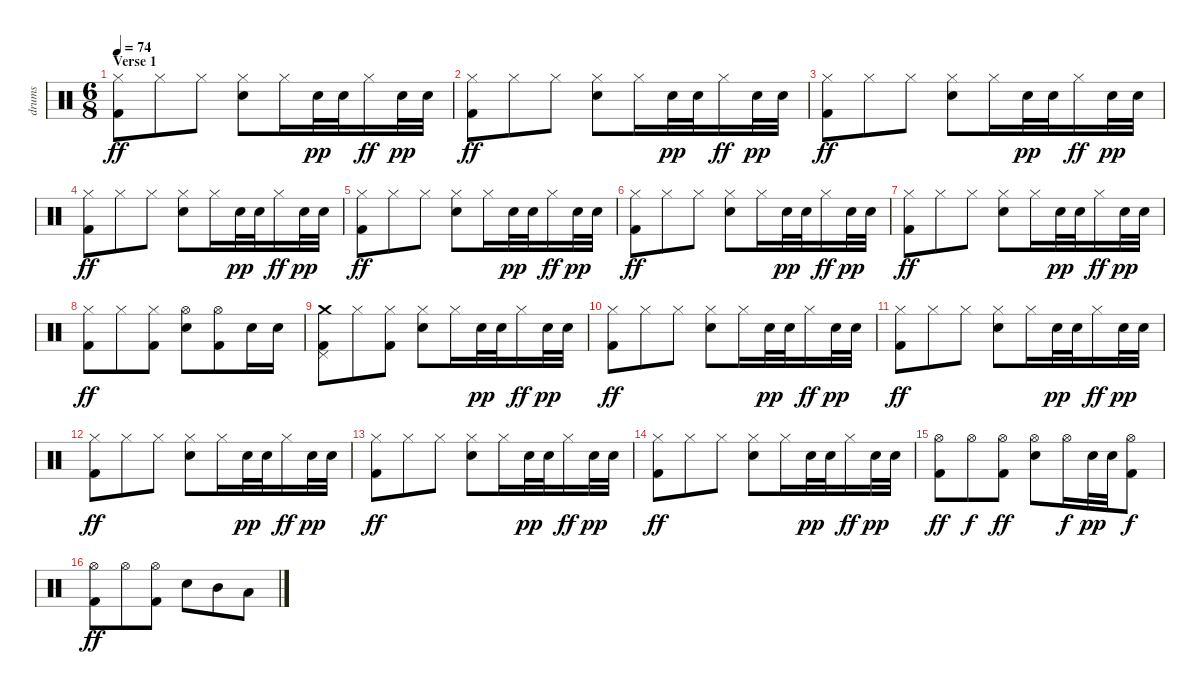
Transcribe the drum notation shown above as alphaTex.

\track ("drums" "drums") {instrument percussion}
\staff {score}
\articulation defaults
\ts (6 8)
\section ("" "Verse 1")
\tempo 74
\clef neutral
\ks c
("Hi-Hat (closed)" "Kick (hit) 2").8{dy ff} "Hi-Hat (closed)".8 "Hi-Hat (closed)".8 ("Hi-Hat (closed)" "Snare (hit) 2").8 "Hi-Hat (closed)".16 "Snare (hit) 2".32{dy pp} "Snare (hit) 2".32 "Hi-Hat (closed)".16{dy ff} "Snare (hit) 2".32{dy pp} "Snare (hit) 2".32 |
("Hi-Hat (closed)" "Kick (hit) 2").8{dy ff} "Hi-Hat (closed)".8 "Hi-Hat (closed)".8 ("Hi-Hat (closed)" "Snare (hit) 2").8 "Hi-Hat (closed)".16 "Snare (hit) 2".32{dy pp} "Snare (hit) 2".32 "Hi-Hat (closed)".16{dy ff} "Snare (hit) 2".32{dy pp} "Snare (hit) 2".32 |
("Hi-Hat (closed)" "Kick (hit) 2").8{dy ff} "Hi-Hat (closed)".8 "Hi-Hat (closed)".8 ("Hi-Hat (closed)" "Snare (hit) 2").8 "Hi-Hat (closed)".16 "Snare (hit) 2".32{dy pp} "Snare (hit) 2".32 "Hi-Hat (closed)".16{dy ff} "Snare (hit) 2".32{dy pp} "Snare (hit) 2".32 |
("Hi-Hat (closed)" "Kick (hit) 2").8{dy ff} "Hi-Hat (closed)".8 "Hi-Hat (closed)".8 ("Hi-Hat (closed)" "Snare (hit) 2").8 "Hi-Hat (closed)".16 "Snare (hit) 2".32{dy pp} "Snare (hit) 2".32 "Hi-Hat (closed)".16{dy ff} "Snare (hit) 2".32{dy pp} "Snare (hit) 2".32 |
("Hi-Hat (closed)" "Kick (hit) 2").8{dy ff} "Hi-Hat (closed)".8 "Hi-Hat (closed)".8 ("Hi-Hat (closed)" "Snare (hit) 2").8 "Hi-Hat (closed)".16 "Snare (hit) 2".32{dy pp} "Snare (hit) 2".32 "Hi-Hat (closed)".16{dy ff} "Snare (hit) 2".32{dy pp} "Snare (hit) 2".32 |
("Hi-Hat (closed)" "Kick (hit) 2").8{dy ff} "Hi-Hat (closed)".8 "Hi-Hat (closed)".8 ("Hi-Hat (closed)" "Snare (hit) 2").8 "Hi-Hat (closed)".16 "Snare (hit) 2".32{dy pp} "Snare (hit) 2".32 "Hi-Hat (closed)".16{dy ff} "Snare (hit) 2".32{dy pp} "Snare (hit) 2".32 |
("Hi-Hat (closed)" "Kick (hit) 2").8{dy ff} "Hi-Hat (closed)".8 "Hi-Hat (closed)".8 ("Hi-Hat (closed)" "Snare (hit) 2").8 "Hi-Hat (closed)".16 "Snare (hit) 2".32{dy pp} "Snare (hit) 2".32 "Hi-Hat (closed)".16{dy ff} "Snare (hit) 2".32{dy pp} "Snare (hit) 2".32 |
("Hi-Hat (closed)" "Kick (hit) 2").8{dy ff} "Hi-Hat (closed)".8 ("Hi-Hat (closed)" "Kick (hit) 2").8 ("Hi-Hat (open)" "Snare (hit) 2").8 ("Hi-Hat (open)" "Kick (hit) 2").8 "Snare (hit) 2".16 "Snare (hit) 2".16 |
("Crash medium (hit)" "Pedal Hi-Hat (hit)" "Kick (hit) 2").8 "Hi-Hat (closed)".8 ("Hi-Hat (closed)" "Kick (hit) 2").8 ("Hi-Hat (closed)" "Snare (hit) 2").8 "Hi-Hat (closed)".16 "Snare (hit) 2".32{dy pp} "Snare (hit) 2".32 "Hi-Hat (closed)".16{dy ff} "Snare (hit) 2".32{dy pp} "Snare (hit) 2".32 |
("Hi-Hat (closed)" "Kick (hit) 2").8{dy ff} "Hi-Hat (closed)".8 "Hi-Hat (closed)".8 ("Hi-Hat (closed)" "Snare (hit) 2").8 "Hi-Hat (closed)".16 "Snare (hit) 2".32{dy pp} "Snare (hit) 2".32 "Hi-Hat (closed)".16{dy ff} "Snare (hit) 2".32{dy pp} "Snare (hit) 2".32 |
("Hi-Hat (closed)" "Kick (hit) 2").8{dy ff} "Hi-Hat (closed)".8 "Hi-Hat (closed)".8 ("Hi-Hat (closed)" "Snare (hit) 2").8 "Hi-Hat (closed)".16 "Snare (hit) 2".32{dy pp} "Snare (hit) 2".32 "Hi-Hat (closed)".16{dy ff} "Snare (hit) 2".32{dy pp} "Snare (hit) 2".32 |
("Hi-Hat (closed)" "Kick (hit) 2").8{dy ff} "Hi-Hat (closed)".8 "Hi-Hat (closed)".8 ("Hi-Hat (closed)" "Snare (hit) 2").8 "Hi-Hat (closed)".16 "Snare (hit) 2".32{dy pp} "Snare (hit) 2".32 "Hi-Hat (closed)".16{dy ff} "Snare (hit) 2".32{dy pp} "Snare (hit) 2".32 |
("Hi-Hat (closed)" "Kick (hit) 2").8{dy ff} "Hi-Hat (closed)".8 "Hi-Hat (closed)".8 ("Hi-Hat (closed)" "Snare (hit) 2").8 "Hi-Hat (closed)".16 "Snare (hit) 2".32{dy pp} "Snare (hit) 2".32 "Hi-Hat (closed)".16{dy ff} "Snare (hit) 2".32{dy pp} "Snare (hit) 2".32 |
("Hi-Hat (closed)" "Kick (hit) 2").8{dy ff} "Hi-Hat (closed)".8 "Hi-Hat (closed)".8 ("Hi-Hat (closed)" "Snare (hit) 2").8 "Hi-Hat (closed)".16 "Snare (hit) 2".32{dy pp} "Snare (hit) 2".32 "Hi-Hat (closed)".16{dy ff} "Snare (hit) 2".32{dy pp} "Snare (hit) 2".32 |
("Hi-Hat (open)" "Kick (hit) 2").8{dy ff} "Hi-Hat (open)".8{dy f} ("Hi-Hat (open)" "Kick (hit) 2").8{dy ff} ("Hi-Hat (open)" "Snare (hit) 2").8 "Hi-Hat (open)".16{dy f} "Snare (hit) 2".32{dy pp} "Snare (hit) 2".32 ("Hi-Hat (open)" "Kick (hit) 2").8{dy f} |
("Hi-Hat (open)" "Kick (hit) 2").8{dy ff} "Hi-Hat (open)".8 ("Hi-Hat (open)" "Kick (hit) 2").8 "Snare (hit) 2".8 "Mid Tom (hit)".8 "Low Tom (hit)".8
